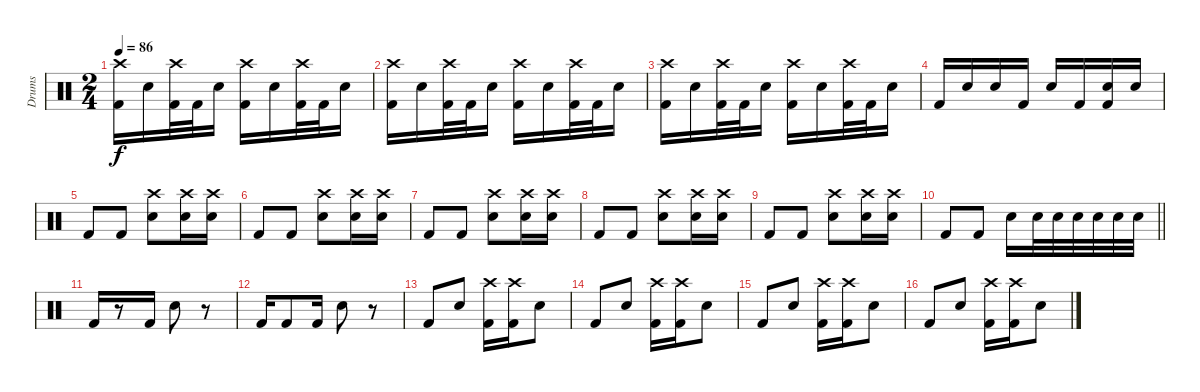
\track ("Drums" "Drums") {instrument percussion}
\staff {score}
\articulation defaults
\ts (2 4)
\tempo 86
\clef neutral
\ks c
("Crash high (hit)" "Kick (hit) 2").16{dy f} "Snare (hit) 2".16 ("Crash high (hit)" "Kick (hit) 2").32 "Kick (hit) 2".32 "Snare (hit) 2".16 ("Crash high (hit)" "Kick (hit) 2").16 "Snare (hit) 2".16 ("Crash high (hit)" "Kick (hit) 2").32 "Kick (hit) 2".32 "Snare (hit) 2".16 |
("Crash high (hit)" "Kick (hit) 2").16 "Snare (hit) 2".16 ("Crash high (hit)" "Kick (hit) 2").32 "Kick (hit) 2".32 "Snare (hit) 2".16 ("Crash high (hit)" "Kick (hit) 2").16 "Snare (hit) 2".16 ("Crash high (hit)" "Kick (hit) 2").32 "Kick (hit) 2".32 "Snare (hit) 2".16 |
("Crash high (hit)" "Kick (hit) 2").16 "Snare (hit) 2".16 ("Crash high (hit)" "Kick (hit) 2").32 "Kick (hit) 2".32 "Snare (hit) 2".16 ("Crash high (hit)" "Kick (hit) 2").16 "Snare (hit) 2".16 ("Crash high (hit)" "Kick (hit) 2").32 "Kick (hit) 2".32 "Snare (hit) 2".16 |
"Kick (hit) 2".16 "Snare (hit) 2".16 "Snare (hit) 2".16 "Kick (hit) 2".16 "Snare (hit) 2".16 "Kick (hit) 2".16 ("Snare (hit) 2" "Kick (hit) 2").16 "Snare (hit) 2".16 |
"Kick (hit) 2".8 "Kick (hit) 2".8 ("Crash high (hit)" "Snare (hit) 2").8 ("Crash high (hit)" "Snare (hit) 2").16 ("Crash high (hit)" "Snare (hit) 2").16 |
"Kick (hit) 2".8 "Kick (hit) 2".8 ("Crash high (hit)" "Snare (hit) 2").8 ("Crash high (hit)" "Snare (hit) 2").16 ("Crash high (hit)" "Snare (hit) 2").16 |
"Kick (hit) 2".8 "Kick (hit) 2".8 ("Crash high (hit)" "Snare (hit) 2").8 ("Crash high (hit)" "Snare (hit) 2").16 ("Crash high (hit)" "Snare (hit) 2").16 |
"Kick (hit) 2".8 "Kick (hit) 2".8 ("Crash high (hit)" "Snare (hit) 2").8 ("Crash high (hit)" "Snare (hit) 2").16 ("Crash high (hit)" "Snare (hit) 2").16 |
"Kick (hit) 2".8 "Kick (hit) 2".8 ("Crash high (hit)" "Snare (hit) 2").8 ("Crash high (hit)" "Snare (hit) 2").16 ("Crash high (hit)" "Snare (hit) 2").16 |
\barLineRight lightlight "Kick (hit) 2".8 "Kick (hit) 2".8 "Snare (hit) 2".16 "Snare (hit) 2".32 "Snare (hit) 2".32 "Snare (hit) 2".32 "Snare (hit) 2".32 "Snare (hit) 2".32 "Snare (hit) 2".32
|
"Kick (hit) 2".16 r.8 "Kick (hit) 2".16 "Snare (hit) 2".8 r.8 |
"Kick (hit) 2".16 "Kick (hit) 2".8 "Kick (hit) 2".16 "Snare (hit) 2".8 r.8 |
"Kick (hit) 2".8 "Snare (hit) 2".8 ("Crash high (hit)" "Kick (hit) 2").16 ("Crash high (hit)" "Kick (hit) 2").16 "Snare (hit) 2".8 |
"Kick (hit) 2".8 "Snare (hit) 2".8 ("Crash high (hit)" "Kick (hit) 2").16 ("Crash high (hit)" "Kick (hit) 2").16 "Snare (hit) 2".8 |
"Kick (hit) 2".8 "Snare (hit) 2".8 ("Crash high (hit)" "Kick (hit) 2").16 ("Crash high (hit)" "Kick (hit) 2").16 "Snare (hit) 2".8 |
"Kick (hit) 2".8 "Snare (hit) 2".8 ("Crash high (hit)" "Kick (hit) 2").16 ("Crash high (hit)" "Kick (hit) 2").16 "Snare (hit) 2".8
